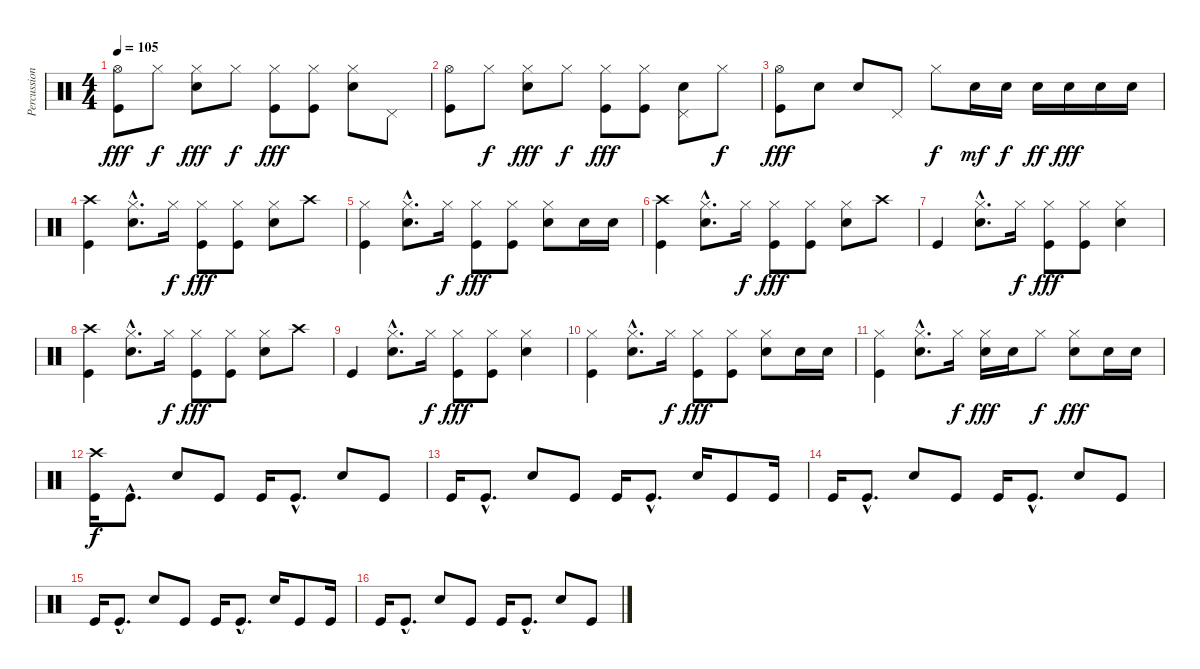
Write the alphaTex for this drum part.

\track ("Percussion" "Percussion") {instrument percussion}
\staff {score}
\articulation defaults
\ts (4 4)
\tempo 105
\clef neutral
\ks c
("Hi-Hat (open)" "Kick (hit)").8{dy fff} "Hi-Hat (closed)".8{dy f} ("Hi-Hat (closed)" "Electric Snare (hit)").8{dy fff} "Hi-Hat (closed)".8{dy f} ("Hi-Hat (closed)" "Kick (hit)").8{dy fff} ("Hi-Hat (closed)" "Kick (hit)").8 ("Hi-Hat (closed)" "Electric Snare (hit)").8 "Pedal Hi-Hat (hit)".8 |
("Hi-Hat (open)" "Kick (hit)").8 "Hi-Hat (closed)".8{dy f} ("Hi-Hat (closed)" "Electric Snare (hit)").8{dy fff} "Hi-Hat (closed)".8{dy f} ("Hi-Hat (closed)" "Kick (hit)").8{dy fff} ("Hi-Hat (closed)" "Kick (hit)").8 ("Pedal Hi-Hat (hit)" "Electric Snare (hit)").8 "Hi-Hat (closed)".8{dy f} |
("Hi-Hat (open)" "Kick (hit)").8{dy fff} "Electric Snare (hit)".8 "Electric Snare (hit)".8 "Pedal Hi-Hat (hit)".8 "Hi-Hat (closed)".8{dy f} "Electric Snare (hit)".16{dy mf} "Electric Snare (hit)".16{dy f} "Electric Snare (hit)".16{dy ff} "Electric Snare (hit)".16{dy fff} "Electric Snare (hit)".16 "Electric Snare (hit)".16 |
("Crash high (hit)" "Kick (hit)").4 ("Hi-Hat (closed)"{hac} "Electric Snare (hit)"{hac}).8{d} "Hi-Hat (closed)".16{dy f} ("Hi-Hat (closed)" "Kick (hit)").8{dy fff} ("Hi-Hat (closed)" "Kick (hit)").8 ("Hi-Hat (closed)" "Electric Snare (hit)").8 "Crash high (hit)".8 |
("Hi-Hat (closed)" "Kick (hit)").4 ("Hi-Hat (closed)"{hac} "Electric Snare (hit)"{hac}).8{d} "Hi-Hat (closed)".16{dy f} ("Hi-Hat (closed)" "Kick (hit)").8{dy fff} ("Hi-Hat (closed)" "Kick (hit)").8 ("Hi-Hat (closed)" "Electric Snare (hit)").8 "Electric Snare (hit)".16 "Electric Snare (hit)".16 |
("Crash high (hit)" "Kick (hit)").4 ("Hi-Hat (closed)"{hac} "Electric Snare (hit)"{hac}).8{d} "Hi-Hat (closed)".16{dy f} ("Hi-Hat (closed)" "Kick (hit)").8{dy fff} ("Hi-Hat (closed)" "Kick (hit)").8 ("Hi-Hat (closed)" "Electric Snare (hit)").8 "Crash high (hit)".8 |
"Kick (hit)".4 ("Hi-Hat (closed)"{hac} "Electric Snare (hit)"{hac}).8{d} "Hi-Hat (closed)".16{dy f} ("Hi-Hat (closed)" "Kick (hit)").8{dy fff} ("Hi-Hat (closed)" "Kick (hit)").8 ("Hi-Hat (closed)" "Electric Snare (hit)").4 |
("Crash high (hit)" "Kick (hit)").4 ("Hi-Hat (closed)"{hac} "Electric Snare (hit)"{hac}).8{d} "Hi-Hat (closed)".16{dy f} ("Hi-Hat (closed)" "Kick (hit)").8{dy fff} ("Hi-Hat (closed)" "Kick (hit)").8 ("Hi-Hat (closed)" "Electric Snare (hit)").8 "Crash high (hit)".8 |
"Kick (hit)".4 ("Hi-Hat (closed)"{hac} "Electric Snare (hit)"{hac}).8{d} "Hi-Hat (closed)".16{dy f} ("Hi-Hat (closed)" "Kick (hit)").8{dy fff} ("Hi-Hat (closed)" "Kick (hit)").8 ("Hi-Hat (closed)" "Electric Snare (hit)").4 |
("Hi-Hat (closed)" "Kick (hit)").4 ("Hi-Hat (closed)"{hac} "Electric Snare (hit)"{hac}).8{d} "Hi-Hat (closed)".16{dy f} ("Hi-Hat (closed)" "Kick (hit)").8{dy fff} ("Hi-Hat (closed)" "Kick (hit)").8 ("Hi-Hat (closed)" "Electric Snare (hit)").8 "Electric Snare (hit)".16 "Electric Snare (hit)".16 |
("Hi-Hat (closed)" "Kick (hit)").4 ("Hi-Hat (closed)"{hac} "Electric Snare (hit)"{hac}).8{d} "Hi-Hat (closed)".16{dy f} ("Hi-Hat (closed)" "Electric Snare (hit)").16{dy fff} "Electric Snare (hit)".16 "Hi-Hat (closed)".8{dy f} ("Hi-Hat (closed)" "Electric Snare (hit)").8{dy fff} "Electric Snare (hit)".16 "Electric Snare (hit)".16 |
("Crash high (hit)" "Kick (hit)").16{dy f} "Kick (hit)"{hac}.8{d} "Electric Snare (hit)".8 "Kick (hit)".8 "Kick (hit)".16 "Kick (hit)"{hac}.8{d} "Electric Snare (hit)".8 "Kick (hit)".8 |
"Kick (hit)".16 "Kick (hit)"{hac}.8{d} "Electric Snare (hit)".8 "Kick (hit)".8 "Kick (hit)".16 "Kick (hit)"{hac}.8{d} "Electric Snare (hit)".16 "Kick (hit)".8 "Kick (hit)".16 |
"Kick (hit)".16 "Kick (hit)"{hac}.8{d} "Electric Snare (hit)".8 "Kick (hit)".8 "Kick (hit)".16 "Kick (hit)"{hac}.8{d} "Electric Snare (hit)".8 "Kick (hit)".8 |
"Kick (hit)".16 "Kick (hit)"{hac}.8{d} "Electric Snare (hit)".8 "Kick (hit)".8 "Kick (hit)".16 "Kick (hit)"{hac}.8{d} "Electric Snare (hit)".16 "Kick (hit)".8 "Kick (hit)".16 |
"Kick (hit)".16 "Kick (hit)"{hac}.8{d} "Electric Snare (hit)".8 "Kick (hit)".8 "Kick (hit)".16 "Kick (hit)"{hac}.8{d} "Electric Snare (hit)".8 "Kick (hit)".8
